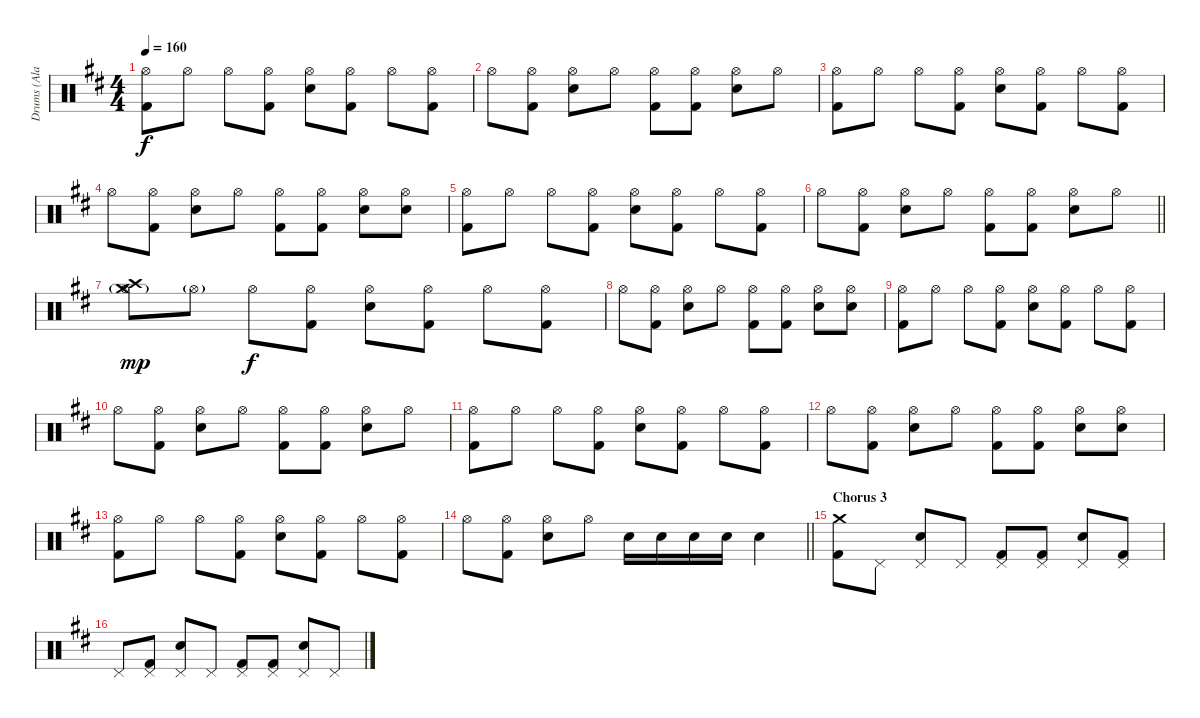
\track ("Drums (Ala Burns)" "Drums (Ala") {instrument percussion}
\staff {score}
\articulation defaults
\ts (4 4)
\tempo 160
\clef neutral
\ks d
("Hi-Hat (open)" "Kick (hit) 2").8{dy f} "Hi-Hat (open)".8 "Hi-Hat (open)".8 ("Hi-Hat (open)" "Kick (hit) 2").8 ("Snare (hit) 2" "Hi-Hat (open)").8 ("Hi-Hat (open)" "Kick (hit) 2").8 "Hi-Hat (open)".8 ("Hi-Hat (open)" "Kick (hit) 2").8 |
"Hi-Hat (open)".8 ("Hi-Hat (open)" "Kick (hit) 2").8 ("Snare (hit) 2" "Hi-Hat (open)").8 "Hi-Hat (open)".8 ("Hi-Hat (open)" "Kick (hit) 2").8 ("Hi-Hat (open)" "Kick (hit) 2").8 ("Snare (hit) 2" "Hi-Hat (open)").8 "Hi-Hat (open)".8 |
("Hi-Hat (open)" "Kick (hit) 2").8 "Hi-Hat (open)".8 "Hi-Hat (open)".8 ("Hi-Hat (open)" "Kick (hit) 2").8 ("Snare (hit) 2" "Hi-Hat (open)").8 ("Hi-Hat (open)" "Kick (hit) 2").8 "Hi-Hat (open)".8 ("Hi-Hat (open)" "Kick (hit) 2").8 |
"Hi-Hat (open)".8 ("Hi-Hat (open)" "Kick (hit) 2").8 ("Snare (hit) 2" "Hi-Hat (open)").8 "Hi-Hat (open)".8 ("Hi-Hat (open)" "Kick (hit) 2").8 ("Hi-Hat (open)" "Kick (hit) 2").8 ("Snare (hit) 2" "Hi-Hat (open)").8 ("Snare (hit) 2" "Hi-Hat (open)").8 |
("Hi-Hat (open)" "Kick (hit) 2").8 "Hi-Hat (open)".8 "Hi-Hat (open)".8 ("Hi-Hat (open)" "Kick (hit) 2").8 ("Snare (hit) 2" "Hi-Hat (open)").8 ("Hi-Hat (open)" "Kick (hit) 2").8 "Hi-Hat (open)".8 ("Hi-Hat (open)" "Kick (hit) 2").8 |
\barLineRight lightlight "Hi-Hat (open)".8
("Hi-Hat (open)" "Kick (hit) 2").8 ("Snare (hit) 2" "Hi-Hat (open)").8 "Hi-Hat (open)".8 ("Hi-Hat (open)" "Kick (hit) 2").8 ("Hi-Hat (open)" "Kick (hit) 2").8 ("Snare (hit) 2" "Hi-Hat (open)").8 "Hi-Hat (open)".8 |
("Crash medium (hit)" "Crash high (hit)" "Hi-Hat (open)"{g}).8{dy mp} "Hi-Hat (open)"{g}.8 "Hi-Hat (open)".8{dy f} ("Hi-Hat (open)" "Kick (hit) 2").8 ("Snare (hit) 2" "Hi-Hat (open)").8 ("Hi-Hat (open)" "Kick (hit) 2").8 "Hi-Hat (open)".8 ("Hi-Hat (open)" "Kick (hit) 2").8 |
"Hi-Hat (open)".8 ("Hi-Hat (open)" "Kick (hit) 2").8 ("Snare (hit) 2" "Hi-Hat (open)").8 "Hi-Hat (open)".8 ("Hi-Hat (open)" "Kick (hit) 2").8 ("Hi-Hat (open)" "Kick (hit) 2").8 ("Snare (hit) 2" "Hi-Hat (open)").8 ("Snare (hit) 2" "Hi-Hat (open)").8 |
("Hi-Hat (open)" "Kick (hit) 2").8 "Hi-Hat (open)".8 "Hi-Hat (open)".8 ("Hi-Hat (open)" "Kick (hit) 2").8 ("Snare (hit) 2" "Hi-Hat (open)").8 ("Hi-Hat (open)" "Kick (hit) 2").8 "Hi-Hat (open)".8 ("Hi-Hat (open)" "Kick (hit) 2").8 |
"Hi-Hat (open)".8 ("Hi-Hat (open)" "Kick (hit) 2").8 ("Snare (hit) 2" "Hi-Hat (open)").8 "Hi-Hat (open)".8 ("Hi-Hat (open)" "Kick (hit) 2").8 ("Hi-Hat (open)" "Kick (hit) 2").8 ("Snare (hit) 2" "Hi-Hat (open)").8 "Hi-Hat (open)".8 |
("Hi-Hat (open)" "Kick (hit) 2").8 "Hi-Hat (open)".8 "Hi-Hat (open)".8 ("Hi-Hat (open)" "Kick (hit) 2").8 ("Snare (hit) 2" "Hi-Hat (open)").8 ("Hi-Hat (open)" "Kick (hit) 2").8 "Hi-Hat (open)".8 ("Hi-Hat (open)" "Kick (hit) 2").8 |
"Hi-Hat (open)".8 ("Hi-Hat (open)" "Kick (hit) 2").8 ("Snare (hit) 2" "Hi-Hat (open)").8 "Hi-Hat (open)".8 ("Hi-Hat (open)" "Kick (hit) 2").8 ("Hi-Hat (open)" "Kick (hit) 2").8 ("Snare (hit) 2" "Hi-Hat (open)").8 ("Snare (hit) 2" "Hi-Hat (open)").8 |
("Hi-Hat (open)" "Kick (hit) 2").8 "Hi-Hat (open)".8 "Hi-Hat (open)".8 ("Hi-Hat (open)" "Kick (hit) 2").8 ("Snare (hit) 2" "Hi-Hat (open)").8 ("Hi-Hat (open)" "Kick (hit) 2").8 "Hi-Hat (open)".8 ("Hi-Hat (open)" "Kick (hit) 2").8 |
\barLineRight lightlight "Hi-Hat (open)".8
("Hi-Hat (open)" "Kick (hit) 2").8 ("Snare (hit) 2" "Hi-Hat (open)").8 "Hi-Hat (open)".8 "Snare (hit) 2".16 "Snare (hit) 2".16 "Snare (hit) 2".16 "Snare (hit) 2".16 "Snare (hit) 2".4 |
\section ("" "Chorus 3")
("Crash medium (hit)" "Kick (hit) 2").8 "Pedal Hi-Hat (hit)".8 ("Pedal Hi-Hat (hit)" "Snare (hit) 2").8 "Pedal Hi-Hat (hit)".8 ("Pedal Hi-Hat (hit)" "Kick (hit) 2").8 ("Pedal Hi-Hat (hit)" "Kick (hit) 2").8 ("Pedal Hi-Hat (hit)" "Snare (hit) 2").8 ("Pedal Hi-Hat (hit)" "Kick (hit) 2").8 |
"Pedal Hi-Hat (hit)".8 ("Pedal Hi-Hat (hit)" "Kick (hit) 2").8 ("Pedal Hi-Hat (hit)" "Snare (hit) 2").8 "Pedal Hi-Hat (hit)".8 ("Pedal Hi-Hat (hit)" "Kick (hit) 2").8 ("Pedal Hi-Hat (hit)" "Kick (hit) 2").8 ("Pedal Hi-Hat (hit)" "Snare (hit) 2").8 "Pedal Hi-Hat (hit)".8
